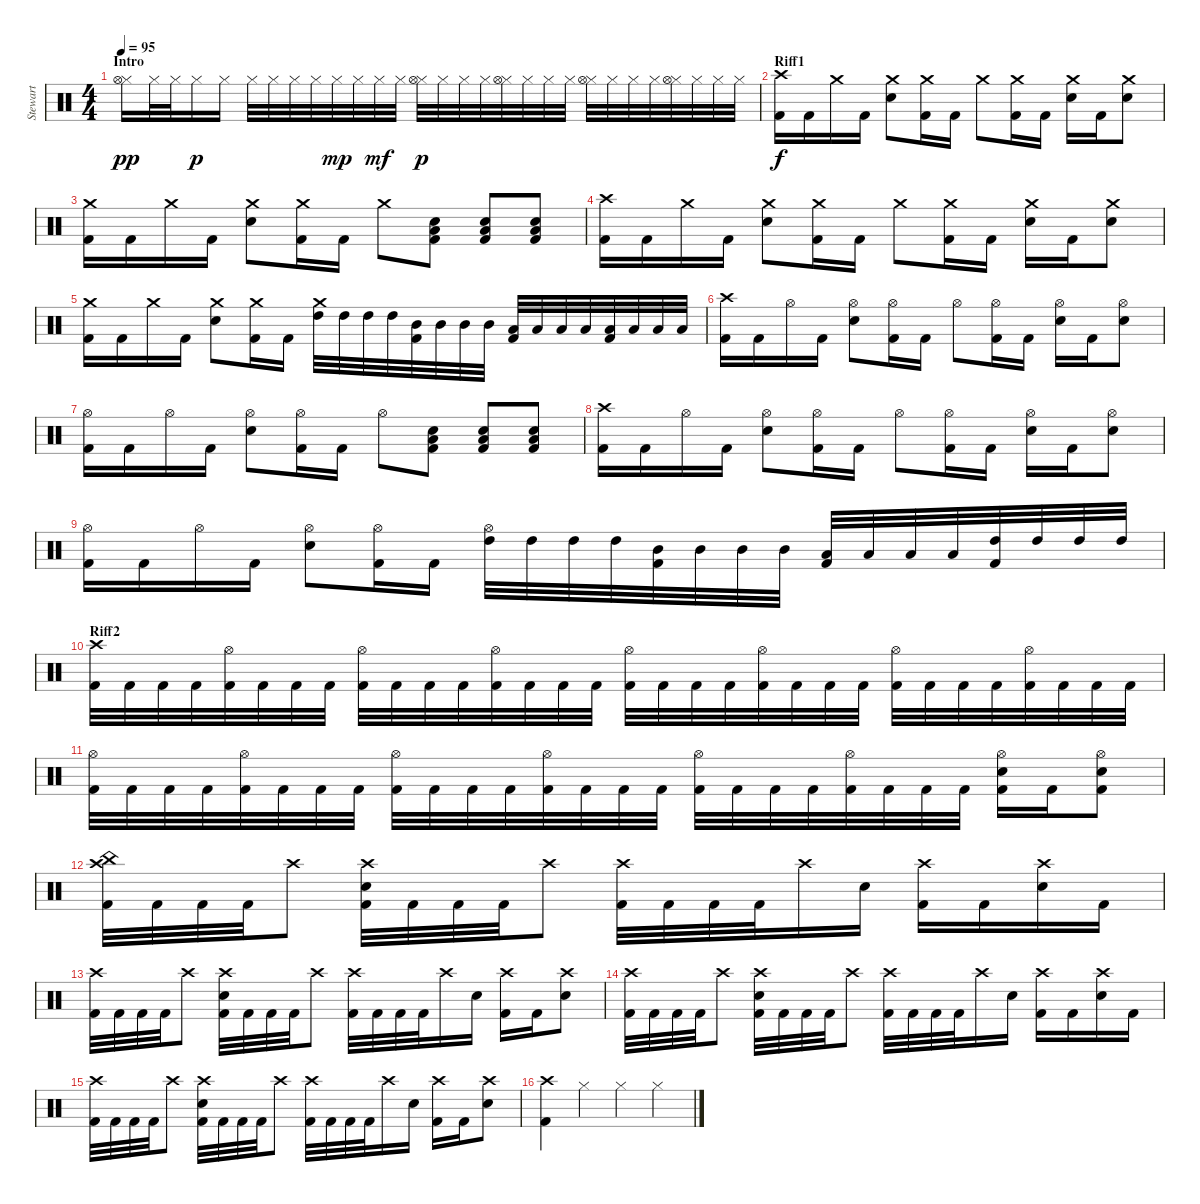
\track ("Stewart" "Stewart") {instrument percussion}
\staff {score}
\articulation defaults
\ts (4 4)
\section ("" "Intro")
\tempo 95
\clef neutral
\ks c
("Hi-Hat (closed)" "Hi-Hat (open)").16{dy pp} "Hi-Hat (closed)".32 "Hi-Hat (closed)".32 "Hi-Hat (closed)".16{dy p} "Hi-Hat (closed)".16 "Hi-Hat (closed)".32 "Hi-Hat (closed)".32 "Hi-Hat (closed)".32 "Hi-Hat (closed)".32 "Hi-Hat (closed)".32{dy mp} "Hi-Hat (closed)".32 "Hi-Hat (closed)".32{dy mf} "Hi-Hat (closed)".32 ("Hi-Hat (closed)" "Hi-Hat (open)").32{dy p} "Hi-Hat (closed)".32 "Hi-Hat (closed)".32 "Hi-Hat (closed)".32 ("Hi-Hat (closed)" "Hi-Hat (open)").32 "Hi-Hat (closed)".32 "Hi-Hat (closed)".32 "Hi-Hat (closed)".32 ("Hi-Hat (closed)" "Hi-Hat (open)").32 "Hi-Hat (closed)".32 "Hi-Hat (closed)".32 "Hi-Hat (closed)".32 ("Hi-Hat (closed)" "Hi-Hat (open)").32 "Hi-Hat (closed)".32 "Hi-Hat (closed)".32 "Hi-Hat (closed)".32 |
\section ("" "Riff1")
("Crash high (hit)" "Kick (hit) 2").16{dy f} "Kick (hit) 2".16 "Crash medium (hit)".16 "Kick (hit) 2".16 ("Crash medium (hit)" "Snare (hit) 2").8 ("Crash medium (hit)" "Kick (hit) 2").16 "Kick (hit) 2".16 "Crash medium (hit)".8 ("Crash medium (hit)" "Kick (hit) 2").16 "Kick (hit) 2".16 ("Crash medium (hit)" "Snare (hit) 2").16 "Kick (hit) 2".16 ("Crash medium (hit)" "Snare (hit) 2").8 |
("Crash medium (hit)" "Kick (hit) 2").16 "Kick (hit) 2".16 "Crash medium (hit)".16 "Kick (hit) 2".16 ("Crash medium (hit)" "Snare (hit) 2").8 ("Crash medium (hit)" "Kick (hit) 2").16 "Kick (hit) 2".16 "Crash medium (hit)".8 ("Low Floor Tom (hit)" "Kick (hit) 2" "Snare (hit) 2").8 ("Low Floor Tom (hit)" "Kick (hit) 2" "Snare (hit) 2").8 ("Low Floor Tom (hit)" "Kick (hit) 2" "Snare (hit) 2").8 |
("Crash high (hit)" "Kick (hit) 2").16 "Kick (hit) 2".16 "Crash medium (hit)".16 "Kick (hit) 2".16 ("Crash medium (hit)" "Snare (hit) 2").8 ("Crash medium (hit)" "Kick (hit) 2").16 "Kick (hit) 2".16 "Crash medium (hit)".8 ("Crash medium (hit)" "Kick (hit) 2").16 "Kick (hit) 2".16 ("Crash medium (hit)" "Snare (hit) 2").16 "Kick (hit) 2".16 ("Crash medium (hit)" "Snare (hit) 2").8 |
("Crash medium (hit)" "Kick (hit) 2").16 "Kick (hit) 2".16 "Crash medium (hit)".16 "Kick (hit) 2".16 ("Crash medium (hit)" "Snare (hit) 2").8 ("Crash medium (hit)" "Kick (hit) 2").16 "Kick (hit) 2".16 ("Crash medium (hit)" "High Tom (hit)").32 "High Tom (hit)".32 "High Tom (hit)".32 "High Tom (hit)".32 ("Mid Tom (hit)" "Kick (hit) 2").32 "Mid Tom (hit)".32 "Mid Tom (hit)".32 "Mid Tom (hit)".32 ("Low Tom (hit)" "Kick (hit) 2").32 "Low Tom (hit)".32 "Low Tom (hit)".32 "Low Tom (hit)".32 ("Low Floor Tom (hit)" "Kick (hit) 2").32 "Low Floor Tom (hit)".32 "Low Floor Tom (hit)".32 "Low Floor Tom (hit)".32 |
("Crash high (hit)" "Kick (hit) 2").16 "Kick (hit) 2".16 "Hi-Hat (open)".16 "Kick (hit) 2".16 ("Hi-Hat (open)" "Snare (hit) 2").8 ("Hi-Hat (open)" "Kick (hit) 2").16 "Kick (hit) 2".16 "Hi-Hat (open)".8 ("Hi-Hat (open)" "Kick (hit) 2").16 "Kick (hit) 2".16 ("Hi-Hat (open)" "Snare (hit) 2").16 "Kick (hit) 2".16 ("Hi-Hat (open)" "Snare (hit) 2").8 |
("Hi-Hat (open)" "Kick (hit) 2").16 "Kick (hit) 2".16 "Hi-Hat (open)".16 "Kick (hit) 2".16 ("Hi-Hat (open)" "Snare (hit) 2").8 ("Hi-Hat (open)" "Kick (hit) 2").16 "Kick (hit) 2".16 "Hi-Hat (open)".8 ("Snare (hit) 2" "Low Floor Tom (hit)" "Kick (hit) 2").8 ("Low Floor Tom (hit)" "Kick (hit) 2" "Snare (hit) 2").8 ("Low Floor Tom (hit)" "Kick (hit) 2" "Snare (hit) 2").8 |
("Crash high (hit)" "Kick (hit) 2").16 "Kick (hit) 2".16 "Hi-Hat (open)".16 "Kick (hit) 2".16 ("Hi-Hat (open)" "Snare (hit) 2").8 ("Hi-Hat (open)" "Kick (hit) 2").16 "Kick (hit) 2".16 "Hi-Hat (open)".8 ("Hi-Hat (open)" "Kick (hit) 2").16 "Kick (hit) 2".16 ("Hi-Hat (open)" "Snare (hit) 2").16 "Kick (hit) 2".16 ("Hi-Hat (open)" "Snare (hit) 2").8 |
("Hi-Hat (open)" "Kick (hit) 2").16 "Kick (hit) 2".16 "Hi-Hat (open)".16 "Kick (hit) 2".16 ("Hi-Hat (open)" "Snare (hit) 2").8 ("Hi-Hat (open)" "Kick (hit) 2").16 "Kick (hit) 2".16 ("Hi-Hat (open)" "High Tom (hit)").32 "High Tom (hit)".32 "High Tom (hit)".32 "High Tom (hit)".32 ("Mid Tom (hit)" "Kick (hit) 2").32 "Mid Tom (hit)".32 "Mid Tom (hit)".32 "Mid Tom (hit)".32 ("Low Tom (hit)" "Kick (hit) 2").32 "Low Tom (hit)".32 "Low Tom (hit)".32 "Low Tom (hit)".32 ("High Tom (hit)" "Kick (hit) 2").32 "High Tom (hit)".32 "High Tom (hit)".32 "High Tom (hit)".32 |
\section ("" "Riff2")
("Crash high (hit)" "Kick (hit) 2").32 "Kick (hit) 2".32 "Kick (hit) 2".32 "Kick (hit) 2".32 ("Hi-Hat (open)" "Kick (hit) 2").32 "Kick (hit) 2".32 "Kick (hit) 2".32 "Kick (hit) 2".32 ("Hi-Hat (open)" "Kick (hit) 2").32 "Kick (hit) 2".32 "Kick (hit) 2".32 "Kick (hit) 2".32 ("Hi-Hat (open)" "Kick (hit) 2").32 "Kick (hit) 2".32 "Kick (hit) 2".32 "Kick (hit) 2".32 ("Hi-Hat (open)" "Kick (hit) 2").32 "Kick (hit) 2".32 "Kick (hit) 2".32 "Kick (hit) 2".32 ("Hi-Hat (open)" "Kick (hit) 2").32 "Kick (hit) 2".32 "Kick (hit) 2".32 "Kick (hit) 2".32 ("Hi-Hat (open)" "Kick (hit) 2").32 "Kick (hit) 2".32 "Kick (hit) 2".32 "Kick (hit) 2".32 ("Hi-Hat (open)" "Kick (hit) 2").32 "Kick (hit) 2".32 "Kick (hit) 2".32 "Kick (hit) 2".32 |
("Hi-Hat (open)" "Kick (hit) 2").32 "Kick (hit) 2".32 "Kick (hit) 2".32 "Kick (hit) 2".32 ("Hi-Hat (open)" "Kick (hit) 2").32 "Kick (hit) 2".32 "Kick (hit) 2".32 "Kick (hit) 2".32 ("Hi-Hat (open)" "Kick (hit) 2").32 "Kick (hit) 2".32 "Kick (hit) 2".32 "Kick (hit) 2".32 ("Hi-Hat (open)" "Kick (hit) 2").32 "Kick (hit) 2".32 "Kick (hit) 2".32 "Kick (hit) 2".32 ("Hi-Hat (open)" "Kick (hit) 2").32 "Kick (hit) 2".32 "Kick (hit) 2".32 "Kick (hit) 2".32 ("Hi-Hat (open)" "Kick (hit) 2").32 "Kick (hit) 2".32 "Kick (hit) 2".32 "Kick (hit) 2".32 ("Hi-Hat (open)" "Snare (hit) 2" "Kick (hit) 2").16 "Kick (hit) 2".16 ("Hi-Hat (open)" "Snare (hit) 2" "Kick (hit) 2").8 |
("Crash high (hit)" "China (hit)" "Kick (hit) 2").32 "Kick (hit) 2".32 "Kick (hit) 2".32 "Kick (hit) 2".32 "Crash high (hit)".8 ("Crash high (hit)" "Snare (hit) 2" "Kick (hit) 2").32 "Kick (hit) 2".32 "Kick (hit) 2".32 "Kick (hit) 2".32 "Crash high (hit)".8 ("Crash high (hit)" "Kick (hit) 2").32 "Kick (hit) 2".32 "Kick (hit) 2".32 "Kick (hit) 2".32 "Crash high (hit)".16 "Snare (hit) 2".16 ("Crash high (hit)" "Kick (hit) 2").16 "Kick (hit) 2".16 ("Crash high (hit)" "Snare (hit) 2").16 "Kick (hit) 2".16 |
("Crash high (hit)" "Kick (hit) 2").32 "Kick (hit) 2".32 "Kick (hit) 2".32 "Kick (hit) 2".32 "Crash high (hit)".8 ("Crash high (hit)" "Snare (hit) 2" "Kick (hit) 2").32 "Kick (hit) 2".32 "Kick (hit) 2".32 "Kick (hit) 2".32 "Crash high (hit)".8 ("Crash high (hit)" "Kick (hit) 2").32 "Kick (hit) 2".32 "Kick (hit) 2".32 "Kick (hit) 2".32 "Crash high (hit)".16 "Snare (hit) 2".16 ("Crash high (hit)" "Kick (hit) 2").16 "Kick (hit) 2".16 ("Crash high (hit)" "Snare (hit) 2").8 |
("Crash high (hit)" "Kick (hit) 2").32 "Kick (hit) 2".32 "Kick (hit) 2".32 "Kick (hit) 2".32 "Crash high (hit)".8 ("Crash high (hit)" "Snare (hit) 2" "Kick (hit) 2").32 "Kick (hit) 2".32 "Kick (hit) 2".32 "Kick (hit) 2".32 "Crash high (hit)".8 ("Crash high (hit)" "Kick (hit) 2").32 "Kick (hit) 2".32 "Kick (hit) 2".32 "Kick (hit) 2".32 "Crash high (hit)".16 "Snare (hit) 2".16 ("Crash high (hit)" "Kick (hit) 2").16 "Kick (hit) 2".16 ("Crash high (hit)" "Snare (hit) 2").16 "Kick (hit) 2".16 |
("Crash high (hit)" "Kick (hit) 2").32 "Kick (hit) 2".32 "Kick (hit) 2".32 "Kick (hit) 2".32 "Crash high (hit)".8 ("Crash high (hit)" "Snare (hit) 2" "Kick (hit) 2").32 "Kick (hit) 2".32 "Kick (hit) 2".32 "Kick (hit) 2".32 "Crash high (hit)".8 ("Crash high (hit)" "Kick (hit) 2").32 "Kick (hit) 2".32 "Kick (hit) 2".32 "Kick (hit) 2".32 "Crash high (hit)".16 "Snare (hit) 2".16 ("Crash high (hit)" "Kick (hit) 2").16 "Kick (hit) 2".16 ("Crash high (hit)" "Snare (hit) 2").8 |
("Crash high (hit)" "Kick (hit) 2").4 "Hi-Hat (closed)".4 "Hi-Hat (closed)".4 "Hi-Hat (closed)".4
